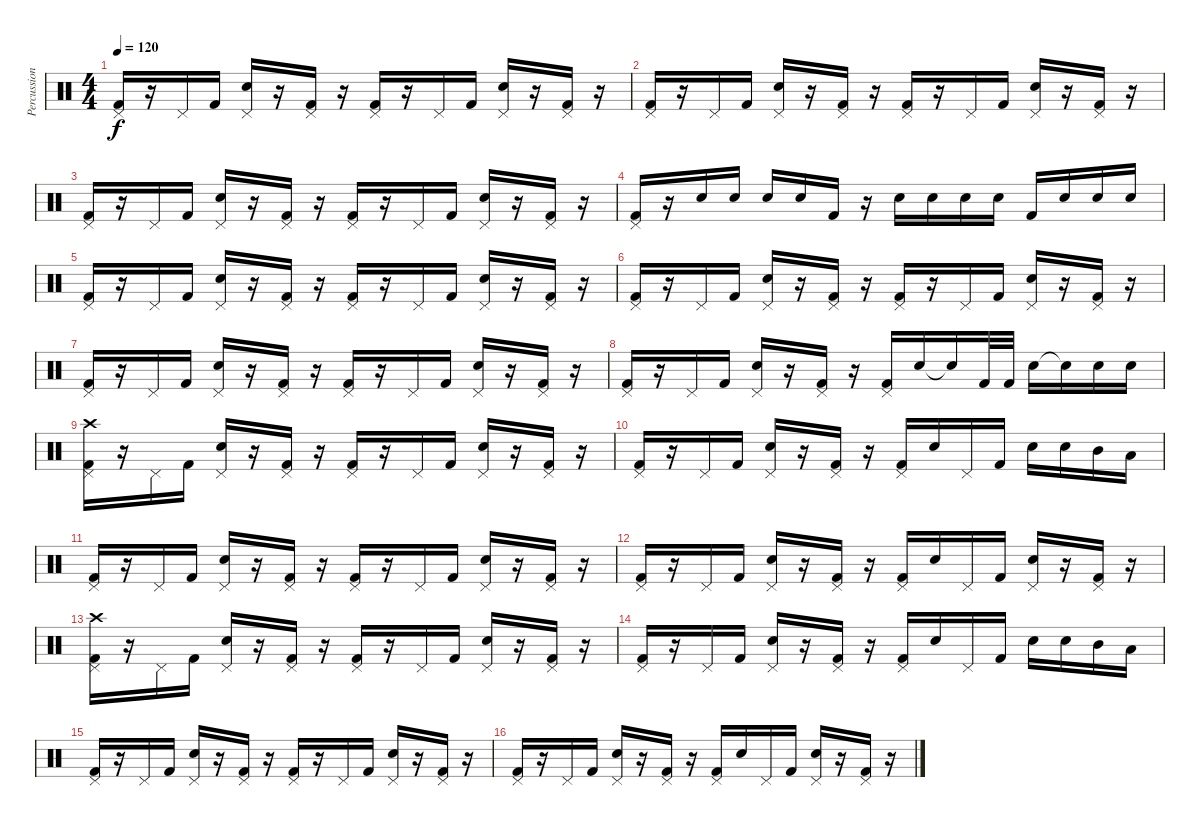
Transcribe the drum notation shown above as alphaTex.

\track ("Percussion" "Percussion") {instrument percussion}
\staff {score}
\articulation defaults
\ts (4 4)
\tempo 120
\clef neutral
\ks c
("Kick (hit) 2" "Pedal Hi-Hat (hit)").16{dy f} r.16 "Pedal Hi-Hat (hit)".16 "Kick (hit) 2".16 ("Electric Snare (hit)" "Pedal Hi-Hat (hit)").16 r.16 ("Kick (hit) 2" "Pedal Hi-Hat (hit)").16 r.16 ("Kick (hit) 2" "Pedal Hi-Hat (hit)").16 r.16 "Pedal Hi-Hat (hit)".16 "Kick (hit) 2".16 ("Electric Snare (hit)" "Pedal Hi-Hat (hit)").16 r.16 ("Kick (hit) 2" "Pedal Hi-Hat (hit)").16 r.16 |
("Kick (hit) 2" "Pedal Hi-Hat (hit)").16 r.16 "Pedal Hi-Hat (hit)".16 "Kick (hit) 2".16 ("Electric Snare (hit)" "Pedal Hi-Hat (hit)").16 r.16 ("Kick (hit) 2" "Pedal Hi-Hat (hit)").16 r.16 ("Kick (hit) 2" "Pedal Hi-Hat (hit)").16 r.16 "Pedal Hi-Hat (hit)".16 "Kick (hit) 2".16 ("Electric Snare (hit)" "Pedal Hi-Hat (hit)").16 r.16 ("Kick (hit) 2" "Pedal Hi-Hat (hit)").16 r.16 |
("Kick (hit) 2" "Pedal Hi-Hat (hit)").16 r.16 "Pedal Hi-Hat (hit)".16 "Kick (hit) 2".16 ("Electric Snare (hit)" "Pedal Hi-Hat (hit)").16 r.16 ("Kick (hit) 2" "Pedal Hi-Hat (hit)").16 r.16 ("Kick (hit) 2" "Pedal Hi-Hat (hit)").16 r.16 "Pedal Hi-Hat (hit)".16 "Kick (hit) 2".16 ("Electric Snare (hit)" "Pedal Hi-Hat (hit)").16 r.16 ("Kick (hit) 2" "Pedal Hi-Hat (hit)").16 r.16 |
("Kick (hit) 2" "Pedal Hi-Hat (hit)").16 r.16 "Electric Snare (hit)".16 "Electric Snare (hit)".16 "Electric Snare (hit)".16 "Electric Snare (hit)".16 "Kick (hit) 2".16 r.16 "Electric Snare (hit)".16 "Electric Snare (hit)".16 "Electric Snare (hit)".16 "Electric Snare (hit)".16 "Kick (hit) 2".16 "Electric Snare (hit)".16 "Electric Snare (hit)".16 "Electric Snare (hit)".16 |
("Kick (hit) 2" "Pedal Hi-Hat (hit)").16 r.16 "Pedal Hi-Hat (hit)".16 "Kick (hit) 2".16 ("Electric Snare (hit)" "Pedal Hi-Hat (hit)").16 r.16 ("Kick (hit) 2" "Pedal Hi-Hat (hit)").16 r.16 ("Kick (hit) 2" "Pedal Hi-Hat (hit)").16 r.16 "Pedal Hi-Hat (hit)".16 "Kick (hit) 2".16 ("Electric Snare (hit)" "Pedal Hi-Hat (hit)").16 r.16 ("Kick (hit) 2" "Pedal Hi-Hat (hit)").16 r.16 |
("Kick (hit) 2" "Pedal Hi-Hat (hit)").16 r.16 "Pedal Hi-Hat (hit)".16 "Kick (hit) 2".16 ("Electric Snare (hit)" "Pedal Hi-Hat (hit)").16 r.16 ("Kick (hit) 2" "Pedal Hi-Hat (hit)").16 r.16 ("Kick (hit) 2" "Pedal Hi-Hat (hit)").16 r.16 "Pedal Hi-Hat (hit)".16 "Kick (hit) 2".16 ("Electric Snare (hit)" "Pedal Hi-Hat (hit)").16 r.16 ("Kick (hit) 2" "Pedal Hi-Hat (hit)").16 r.16 |
("Kick (hit) 2" "Pedal Hi-Hat (hit)").16 r.16 "Pedal Hi-Hat (hit)".16 "Kick (hit) 2".16 ("Electric Snare (hit)" "Pedal Hi-Hat (hit)").16 r.16 ("Kick (hit) 2" "Pedal Hi-Hat (hit)").16 r.16 ("Kick (hit) 2" "Pedal Hi-Hat (hit)").16 r.16 "Pedal Hi-Hat (hit)".16 "Kick (hit) 2".16 ("Electric Snare (hit)" "Pedal Hi-Hat (hit)").16 r.16 ("Kick (hit) 2" "Pedal Hi-Hat (hit)").16 r.16 |
("Kick (hit) 2" "Pedal Hi-Hat (hit)").16 r.16 "Pedal Hi-Hat (hit)".16 "Kick (hit) 2".16 ("Electric Snare (hit)" "Pedal Hi-Hat (hit)").16 r.16 ("Kick (hit) 2" "Pedal Hi-Hat (hit)").16 r.16 ("Kick (hit) 2" "Pedal Hi-Hat (hit)").16 "Electric Snare (hit)".16 "Snare (hit)"{t}.16 "Kick (hit) 2".32 "Kick (hit) 2".32 "Electric Snare (hit)".16 "Snare (hit)"{t}.16 "Electric Snare (hit)".16 "Electric Snare (hit)".16 |
("Crash high (hit)" "Kick (hit) 2" "Pedal Hi-Hat (hit)").16 r.16 "Pedal Hi-Hat (hit)".16 "Kick (hit) 2".16 ("Electric Snare (hit)" "Pedal Hi-Hat (hit)").16 r.16 ("Kick (hit) 2" "Pedal Hi-Hat (hit)").16 r.16 ("Kick (hit) 2" "Pedal Hi-Hat (hit)").16 r.16 "Pedal Hi-Hat (hit)".16 "Kick (hit) 2".16 ("Electric Snare (hit)" "Pedal Hi-Hat (hit)").16 r.16 ("Kick (hit) 2" "Pedal Hi-Hat (hit)").16 r.16 |
("Kick (hit) 2" "Pedal Hi-Hat (hit)").16 r.16 "Pedal Hi-Hat (hit)".16 "Kick (hit) 2".16 ("Electric Snare (hit)" "Pedal Hi-Hat (hit)").16 r.16 ("Kick (hit) 2" "Pedal Hi-Hat (hit)").16 r.16 ("Kick (hit) 2" "Pedal Hi-Hat (hit)").16 "Electric Snare (hit)".16 "Pedal Hi-Hat (hit)".16 "Kick (hit) 2".16 "Electric Snare (hit)".16 "Electric Snare (hit)".16 "Mid Tom (hit)".16 "Low Tom (hit)".16 |
("Kick (hit) 2" "Pedal Hi-Hat (hit)").16 r.16 "Pedal Hi-Hat (hit)".16 "Kick (hit) 2".16 ("Electric Snare (hit)" "Pedal Hi-Hat (hit)").16 r.16 ("Kick (hit) 2" "Pedal Hi-Hat (hit)").16 r.16 ("Kick (hit) 2" "Pedal Hi-Hat (hit)").16 r.16 "Pedal Hi-Hat (hit)".16 "Kick (hit) 2".16 ("Electric Snare (hit)" "Pedal Hi-Hat (hit)").16 r.16 ("Kick (hit) 2" "Pedal Hi-Hat (hit)").16 r.16 |
("Kick (hit) 2" "Pedal Hi-Hat (hit)").16 r.16 "Pedal Hi-Hat (hit)".16 "Kick (hit) 2".16 ("Electric Snare (hit)" "Pedal Hi-Hat (hit)").16 r.16 ("Kick (hit) 2" "Pedal Hi-Hat (hit)").16 r.16 ("Kick (hit) 2" "Pedal Hi-Hat (hit)").16 "Electric Snare (hit)".16 "Pedal Hi-Hat (hit)".16 "Kick (hit) 2".16 ("Electric Snare (hit)" "Pedal Hi-Hat (hit)").16 r.16 ("Kick (hit) 2" "Pedal Hi-Hat (hit)").16 r.16 |
("Crash high (hit)" "Kick (hit) 2" "Pedal Hi-Hat (hit)").16 r.16 "Pedal Hi-Hat (hit)".16 "Kick (hit) 2".16 ("Electric Snare (hit)" "Pedal Hi-Hat (hit)").16 r.16 ("Kick (hit) 2" "Pedal Hi-Hat (hit)").16 r.16 ("Kick (hit) 2" "Pedal Hi-Hat (hit)").16 r.16 "Pedal Hi-Hat (hit)".16 "Kick (hit) 2".16 ("Electric Snare (hit)" "Pedal Hi-Hat (hit)").16 r.16 ("Kick (hit) 2" "Pedal Hi-Hat (hit)").16 r.16 |
("Kick (hit) 2" "Pedal Hi-Hat (hit)").16 r.16 "Pedal Hi-Hat (hit)".16 "Kick (hit) 2".16 ("Electric Snare (hit)" "Pedal Hi-Hat (hit)").16 r.16 ("Kick (hit) 2" "Pedal Hi-Hat (hit)").16 r.16 ("Kick (hit) 2" "Pedal Hi-Hat (hit)").16 "Electric Snare (hit)".16 "Pedal Hi-Hat (hit)".16 "Kick (hit) 2".16 "Electric Snare (hit)".16 "Electric Snare (hit)".16 "Mid Tom (hit)".16 "Low Tom (hit)".16 |
("Kick (hit) 2" "Pedal Hi-Hat (hit)").16 r.16 "Pedal Hi-Hat (hit)".16 "Kick (hit) 2".16 ("Electric Snare (hit)" "Pedal Hi-Hat (hit)").16 r.16 ("Kick (hit) 2" "Pedal Hi-Hat (hit)").16 r.16 ("Kick (hit) 2" "Pedal Hi-Hat (hit)").16 r.16 "Pedal Hi-Hat (hit)".16 "Kick (hit) 2".16 ("Electric Snare (hit)" "Pedal Hi-Hat (hit)").16 r.16 ("Kick (hit) 2" "Pedal Hi-Hat (hit)").16 r.16 |
("Kick (hit) 2" "Pedal Hi-Hat (hit)").16 r.16 "Pedal Hi-Hat (hit)".16 "Kick (hit) 2".16 ("Electric Snare (hit)" "Pedal Hi-Hat (hit)").16 r.16 ("Kick (hit) 2" "Pedal Hi-Hat (hit)").16 r.16 ("Kick (hit) 2" "Pedal Hi-Hat (hit)").16 "Electric Snare (hit)".16 "Pedal Hi-Hat (hit)".16 "Kick (hit) 2".16 ("Electric Snare (hit)" "Pedal Hi-Hat (hit)").16 r.16 ("Kick (hit) 2" "Pedal Hi-Hat (hit)").16 r.16
